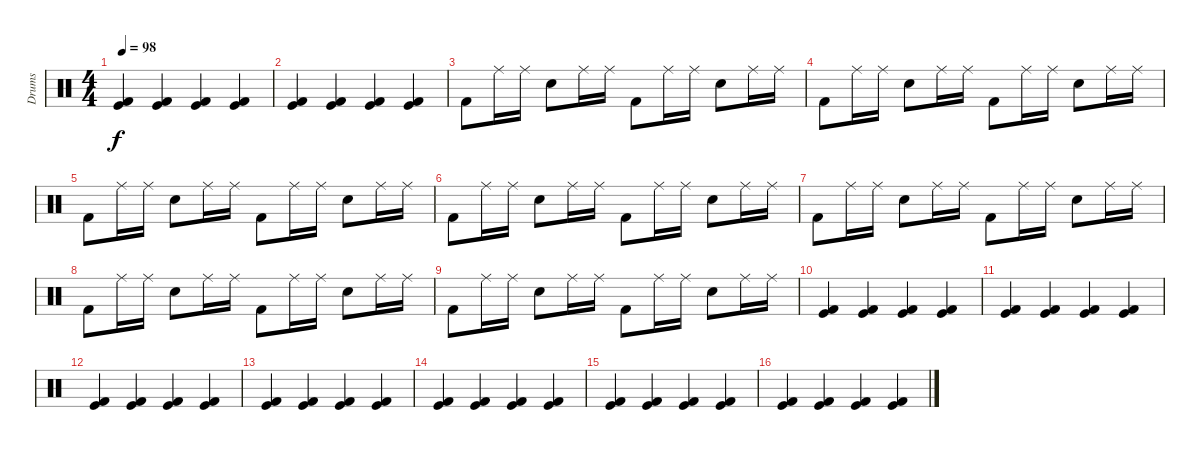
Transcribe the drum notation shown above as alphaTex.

\track ("Drums" "Drums") {instrument percussion}
\staff {score}
\articulation defaults
\ts (4 4)
\tempo 98
\clef neutral
\ks c
("Kick (hit)" "Kick (hit) 2").4{dy f} ("Kick (hit)" "Kick (hit) 2").4 ("Kick (hit)" "Kick (hit) 2").4 ("Kick (hit)" "Kick (hit) 2").4 |
("Kick (hit)" "Kick (hit) 2").4 ("Kick (hit)" "Kick (hit) 2").4 ("Kick (hit)" "Kick (hit) 2").4 ("Kick (hit)" "Kick (hit) 2").4 |
"Kick (hit) 2".8 "Ride (middle)".16 "Ride (middle)".16 "Snare (hit) 2".8 "Ride (middle)".16 "Ride (middle)".16 "Kick (hit) 2".8 "Ride (middle)".16 "Ride (middle)".16 "Snare (hit) 2".8 "Ride (middle)".16 "Ride (middle)".16 |
"Kick (hit) 2".8 "Ride (middle)".16 "Ride (middle)".16 "Snare (hit) 2".8 "Ride (middle)".16 "Ride (middle)".16 "Kick (hit) 2".8 "Ride (middle)".16 "Ride (middle)".16 "Snare (hit) 2".8 "Ride (middle)".16 "Ride (middle)".16 |
"Kick (hit) 2".8 "Ride (middle)".16 "Ride (middle)".16 "Snare (hit) 2".8 "Ride (middle)".16 "Ride (middle)".16 "Kick (hit) 2".8 "Ride (middle)".16 "Ride (middle)".16 "Snare (hit) 2".8 "Ride (middle)".16 "Ride (middle)".16 |
"Kick (hit) 2".8 "Ride (middle)".16 "Ride (middle)".16 "Snare (hit) 2".8 "Ride (middle)".16 "Ride (middle)".16 "Kick (hit) 2".8 "Ride (middle)".16 "Ride (middle)".16 "Snare (hit) 2".8 "Ride (middle)".16 "Ride (middle)".16 |
"Kick (hit) 2".8 "Ride (middle)".16 "Ride (middle)".16 "Snare (hit) 2".8 "Ride (middle)".16 "Ride (middle)".16 "Kick (hit) 2".8 "Ride (middle)".16 "Ride (middle)".16 "Snare (hit) 2".8 "Ride (middle)".16 "Ride (middle)".16 |
"Kick (hit) 2".8 "Ride (middle)".16 "Ride (middle)".16 "Snare (hit) 2".8 "Ride (middle)".16 "Ride (middle)".16 "Kick (hit) 2".8 "Ride (middle)".16 "Ride (middle)".16 "Snare (hit) 2".8 "Ride (middle)".16 "Ride (middle)".16 |
"Kick (hit) 2".8 "Ride (middle)".16 "Ride (middle)".16 "Snare (hit) 2".8 "Ride (middle)".16 "Ride (middle)".16 "Kick (hit) 2".8 "Ride (middle)".16 "Ride (middle)".16 "Snare (hit) 2".8 "Ride (middle)".16 "Ride (middle)".16 |
("Kick (hit)" "Kick (hit) 2").4 ("Kick (hit)" "Kick (hit) 2").4 ("Kick (hit)" "Kick (hit) 2").4 ("Kick (hit)" "Kick (hit) 2").4 |
("Kick (hit)" "Kick (hit) 2").4 ("Kick (hit)" "Kick (hit) 2").4 ("Kick (hit)" "Kick (hit) 2").4 ("Kick (hit)" "Kick (hit) 2").4 |
("Kick (hit)" "Kick (hit) 2").4 ("Kick (hit)" "Kick (hit) 2").4 ("Kick (hit)" "Kick (hit) 2").4 ("Kick (hit)" "Kick (hit) 2").4 |
("Kick (hit)" "Kick (hit) 2").4 ("Kick (hit)" "Kick (hit) 2").4 ("Kick (hit)" "Kick (hit) 2").4 ("Kick (hit)" "Kick (hit) 2").4 |
("Kick (hit)" "Kick (hit) 2").4 ("Kick (hit)" "Kick (hit) 2").4 ("Kick (hit)" "Kick (hit) 2").4 ("Kick (hit)" "Kick (hit) 2").4 |
("Kick (hit)" "Kick (hit) 2").4 ("Kick (hit)" "Kick (hit) 2").4 ("Kick (hit)" "Kick (hit) 2").4 ("Kick (hit)" "Kick (hit) 2").4 |
("Kick (hit)" "Kick (hit) 2").4 ("Kick (hit)" "Kick (hit) 2").4 ("Kick (hit)" "Kick (hit) 2").4 ("Kick (hit)" "Kick (hit) 2").4
